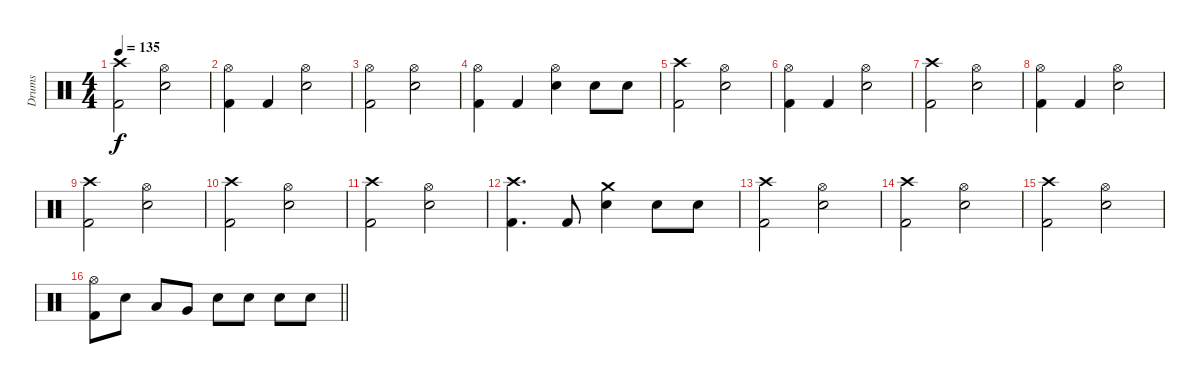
\track ("Drums" "Drums") {instrument percussion}
\staff {score}
\articulation defaults
\ts (4 4)
\tempo 135
\clef neutral
\ks c
("Crash high (hit)" "Kick (hit) 2").2{dy f} ("Hi-Hat (open)" "Electric Snare (hit)").2 |
("Hi-Hat (open)" "Kick (hit) 2").4 "Kick (hit) 2".4 ("Hi-Hat (open)" "Electric Snare (hit)").2 |
("Hi-Hat (open)" "Kick (hit) 2").2 ("Hi-Hat (open)" "Electric Snare (hit)").2 |
("Hi-Hat (open)" "Kick (hit) 2").4 "Kick (hit) 2".4 ("Hi-Hat (open)" "Electric Snare (hit)").4 "Electric Snare (hit)".8 "Electric Snare (hit)".8 |
("Crash high (hit)" "Kick (hit) 2").2 ("Hi-Hat (open)" "Electric Snare (hit)").2 |
("Hi-Hat (open)" "Kick (hit) 2").4 "Kick (hit) 2".4 ("Hi-Hat (open)" "Electric Snare (hit)").2 |
("Crash high (hit)" "Kick (hit) 2").2 ("Hi-Hat (open)" "Electric Snare (hit)").2 |
("Hi-Hat (open)" "Kick (hit) 2").4 "Kick (hit) 2".4 ("Hi-Hat (open)" "Electric Snare (hit)").2 |
("Crash high (hit)" "Kick (hit) 2").2 ("Hi-Hat (open)" "Electric Snare (hit)").2 |
("Crash high (hit)" "Kick (hit) 2").2 ("Hi-Hat (open)" "Electric Snare (hit)").2 |
("Crash high (hit)" "Kick (hit) 2").2 ("Hi-Hat (open)" "Electric Snare (hit)").2 |
("Crash high (hit)" "Kick (hit) 2").4{d} "Kick (hit) 2".8 ("Crash medium (hit)" "Electric Snare (hit)").4 "Electric Snare (hit)".8 "Electric Snare (hit)".8 |
("Crash high (hit)" "Kick (hit) 2").2 ("Hi-Hat (open)" "Electric Snare (hit)").2 |
("Crash high (hit)" "Kick (hit) 2").2 ("Hi-Hat (open)" "Electric Snare (hit)").2 |
("Crash high (hit)" "Kick (hit) 2").2 ("Hi-Hat (open)" "Electric Snare (hit)").2 |
\barLineRight lightlight
("Hi-Hat (open)" "Kick (hit) 2").8 "Electric Snare (hit)".8 "Low Tom (hit)".8 "Very Low Tom (hit)".8 "Electric Snare (hit)".8 "Electric Snare (hit)".8 "Electric Snare (hit)".8 "Electric Snare (hit)".8
